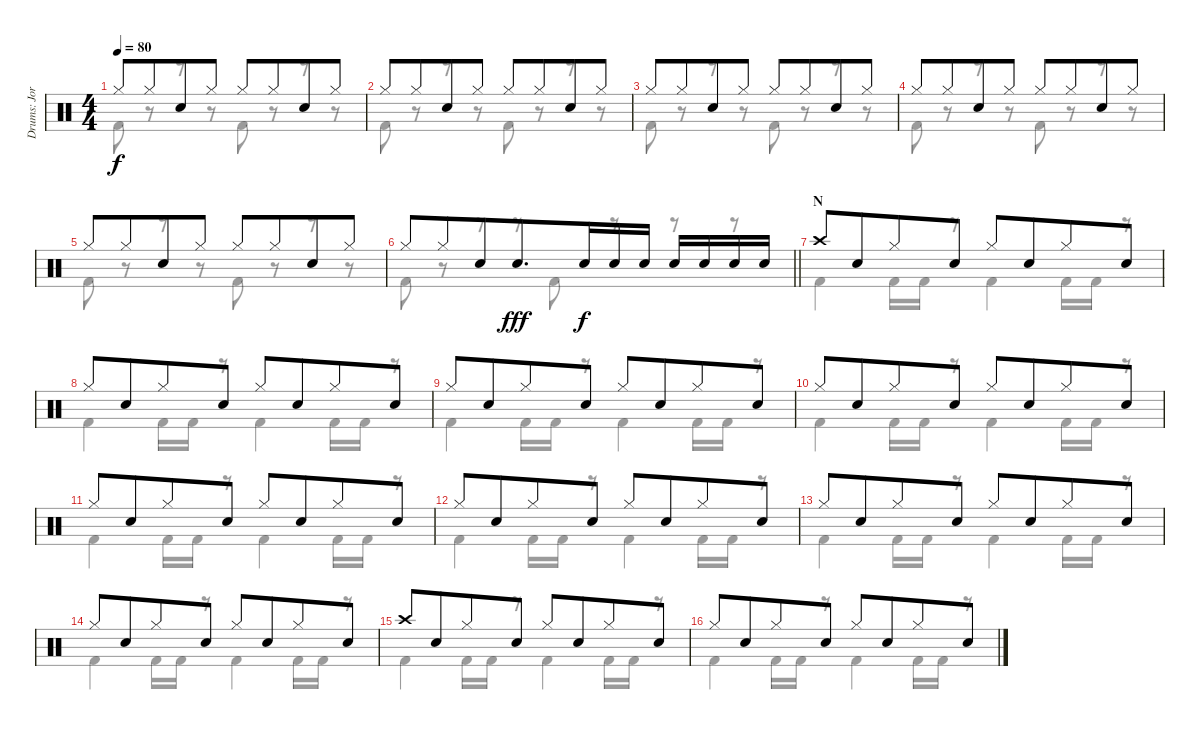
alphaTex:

\track ("Drums: Jorg" "Drums: Jor") {instrument percussion}
\staff {score}
\articulation defaults
\voice
\ts (4 4)
\tempo 80
\clef neutral
\ks c "Hi-Hat (closed)".8{dy f} "Hi-Hat (closed)".8{beam merge} "Snare (hit) 2".8 "Hi-Hat (closed)".8 "Hi-Hat (closed)".8 "Hi-Hat (closed)".8{beam merge} "Snare (hit) 2".8 "Hi-Hat (closed)".8
|
"Hi-Hat (closed)".8 "Hi-Hat (closed)".8{beam merge} "Snare (hit) 2".8 "Hi-Hat (closed)".8 "Hi-Hat (closed)".8 "Hi-Hat (closed)".8{beam merge} "Snare (hit) 2".8 "Hi-Hat (closed)".8 |
"Hi-Hat (closed)".8 "Hi-Hat (closed)".8{beam merge} "Snare (hit) 2".8 "Hi-Hat (closed)".8 "Hi-Hat (closed)".8 "Hi-Hat (closed)".8{beam merge} "Snare (hit) 2".8 "Hi-Hat (closed)".8 |
"Hi-Hat (closed)".8 "Hi-Hat (closed)".8{beam merge} "Snare (hit) 2".8 "Hi-Hat (closed)".8 "Hi-Hat (closed)".8 "Hi-Hat (closed)".8{beam merge} "Snare (hit) 2".8 "Hi-Hat (closed)".8 |
"Hi-Hat (closed)".8 "Hi-Hat (closed)".8{beam merge} "Snare (hit) 2".8 "Hi-Hat (closed)".8 "Hi-Hat (closed)".8 "Hi-Hat (closed)".8{beam merge} "Snare (hit) 2".8 "Hi-Hat (closed)".8 |
\barLineRight lightlight "Hi-Hat (closed)".8 "Hi-Hat (closed)".8{beam merge} "Snare (hit) 2".8 "Snare (hit) 2".8{d dy fff beam merge} "Electric Snare (hit)".16{dy f} "Electric Snare (hit)".16 "Electric Snare (hit)".16 "Electric Snare (hit)".16{beam merge} "Electric Snare (hit)".16 "Electric Snare (hit)".16 "Electric Snare (hit)".16
|
\section ("" "N")
"Crash high (hit)".8 "Snare (hit) 2".8{beam merge} "Hi-Hat (closed)".8 "Snare (hit) 2".8 "Hi-Hat (closed)".8 "Snare (hit) 2".8{beam merge} "Hi-Hat (closed)".8 "Snare (hit) 2".8 |
"Hi-Hat (closed)".8 "Snare (hit) 2".8{beam merge} "Hi-Hat (closed)".8 "Snare (hit) 2".8 "Hi-Hat (closed)".8 "Snare (hit) 2".8{beam merge} "Hi-Hat (closed)".8 "Snare (hit) 2".8 |
"Hi-Hat (closed)".8 "Snare (hit) 2".8{beam merge} "Hi-Hat (closed)".8 "Snare (hit) 2".8 "Hi-Hat (closed)".8 "Snare (hit) 2".8{beam merge} "Hi-Hat (closed)".8 "Snare (hit) 2".8 |
"Hi-Hat (closed)".8 "Snare (hit) 2".8{beam merge} "Hi-Hat (closed)".8 "Snare (hit) 2".8 "Hi-Hat (closed)".8 "Snare (hit) 2".8{beam merge} "Hi-Hat (closed)".8 "Snare (hit) 2".8 |
"Hi-Hat (closed)".8 "Snare (hit) 2".8{beam merge} "Hi-Hat (closed)".8 "Snare (hit) 2".8 "Hi-Hat (closed)".8 "Snare (hit) 2".8{beam merge} "Hi-Hat (closed)".8 "Snare (hit) 2".8 |
"Hi-Hat (closed)".8 "Snare (hit) 2".8{beam merge} "Hi-Hat (closed)".8 "Snare (hit) 2".8 "Hi-Hat (closed)".8 "Snare (hit) 2".8{beam merge} "Hi-Hat (closed)".8 "Snare (hit) 2".8 |
"Hi-Hat (closed)".8 "Snare (hit) 2".8{beam merge} "Hi-Hat (closed)".8 "Snare (hit) 2".8 "Hi-Hat (closed)".8 "Snare (hit) 2".8{beam merge} "Hi-Hat (closed)".8 "Snare (hit) 2".8 |
"Hi-Hat (closed)".8 "Snare (hit) 2".8{beam merge} "Hi-Hat (closed)".8 "Snare (hit) 2".8 "Hi-Hat (closed)".8 "Snare (hit) 2".8{beam merge} "Hi-Hat (closed)".8 "Snare (hit) 2".8 |
"Crash high (hit)".8 "Snare (hit) 2".8{beam merge} "Hi-Hat (closed)".8 "Snare (hit) 2".8 "Hi-Hat (closed)".8 "Snare (hit) 2".8{beam merge} "Hi-Hat (closed)".8 "Snare (hit) 2".8 |
"Hi-Hat (closed)".8 "Snare (hit) 2".8{beam merge} "Hi-Hat (closed)".8 "Snare (hit) 2".8 "Hi-Hat (closed)".8 "Snare (hit) 2".8{beam merge} "Hi-Hat (closed)".8 "Snare (hit) 2".8
\voice
\clef neutral
\ottava regular
\simile none
\ks c "Kick (hit) 2".8{dy f}
r.8 r.8 r.8 "Kick (hit) 2".8 r.8 r.8 r.8 |
"Kick (hit) 2".8 r.8 r.8 r.8 "Kick (hit) 2".8 r.8 r.8 r.8 |
"Kick (hit) 2".8 r.8 r.8 r.8 "Kick (hit) 2".8 r.8 r.8 r.8 |
"Kick (hit) 2".8 r.8 r.8 r.8 "Kick (hit) 2".8 r.8 r.8 r.8 |
"Kick (hit) 2".8 r.8 r.8 r.8 "Kick (hit) 2".8 r.8 r.8 r.8 |
\barLineRight lightlight "Kick (hit) 2".8
r.8 r.8 r.8 "Kick (hit) 2".8 r.8 r.8 r.8 |
"Kick (hit) 2".4 "Kick (hit) 2".16 "Kick (hit) 2".16 r.8 "Kick (hit) 2".4 "Kick (hit) 2".16 "Kick (hit) 2".16 r.8 |
"Kick (hit) 2".4 "Kick (hit) 2".16 "Kick (hit) 2".16 r.8 "Kick (hit) 2".4 "Kick (hit) 2".16 "Kick (hit) 2".16 r.8 |
"Kick (hit) 2".4 "Kick (hit) 2".16 "Kick (hit) 2".16 r.8 "Kick (hit) 2".4 "Kick (hit) 2".16 "Kick (hit) 2".16 r.8 |
"Kick (hit) 2".4 "Kick (hit) 2".16 "Kick (hit) 2".16 r.8 "Kick (hit) 2".4 "Kick (hit) 2".16 "Kick (hit) 2".16 r.8 |
"Kick (hit) 2".4 "Kick (hit) 2".16 "Kick (hit) 2".16 r.8 "Kick (hit) 2".4 "Kick (hit) 2".16 "Kick (hit) 2".16 r.8 |
"Kick (hit) 2".4 "Kick (hit) 2".16 "Kick (hit) 2".16 r.8 "Kick (hit) 2".4 "Kick (hit) 2".16 "Kick (hit) 2".16 r.8 |
"Kick (hit) 2".4 "Kick (hit) 2".16 "Kick (hit) 2".16 r.8 "Kick (hit) 2".4 "Kick (hit) 2".16 "Kick (hit) 2".16 r.8 |
"Kick (hit) 2".4 "Kick (hit) 2".16 "Kick (hit) 2".16 r.8 "Kick (hit) 2".4 "Kick (hit) 2".16 "Kick (hit) 2".16 r.8 |
"Kick (hit) 2".4 "Kick (hit) 2".16 "Kick (hit) 2".16 r.8 "Kick (hit) 2".4 "Kick (hit) 2".16 "Kick (hit) 2".16 r.8 |
"Kick (hit) 2".4 "Kick (hit) 2".16 "Kick (hit) 2".16 r.8 "Kick (hit) 2".4 "Kick (hit) 2".16 "Kick (hit) 2".16 r.8
